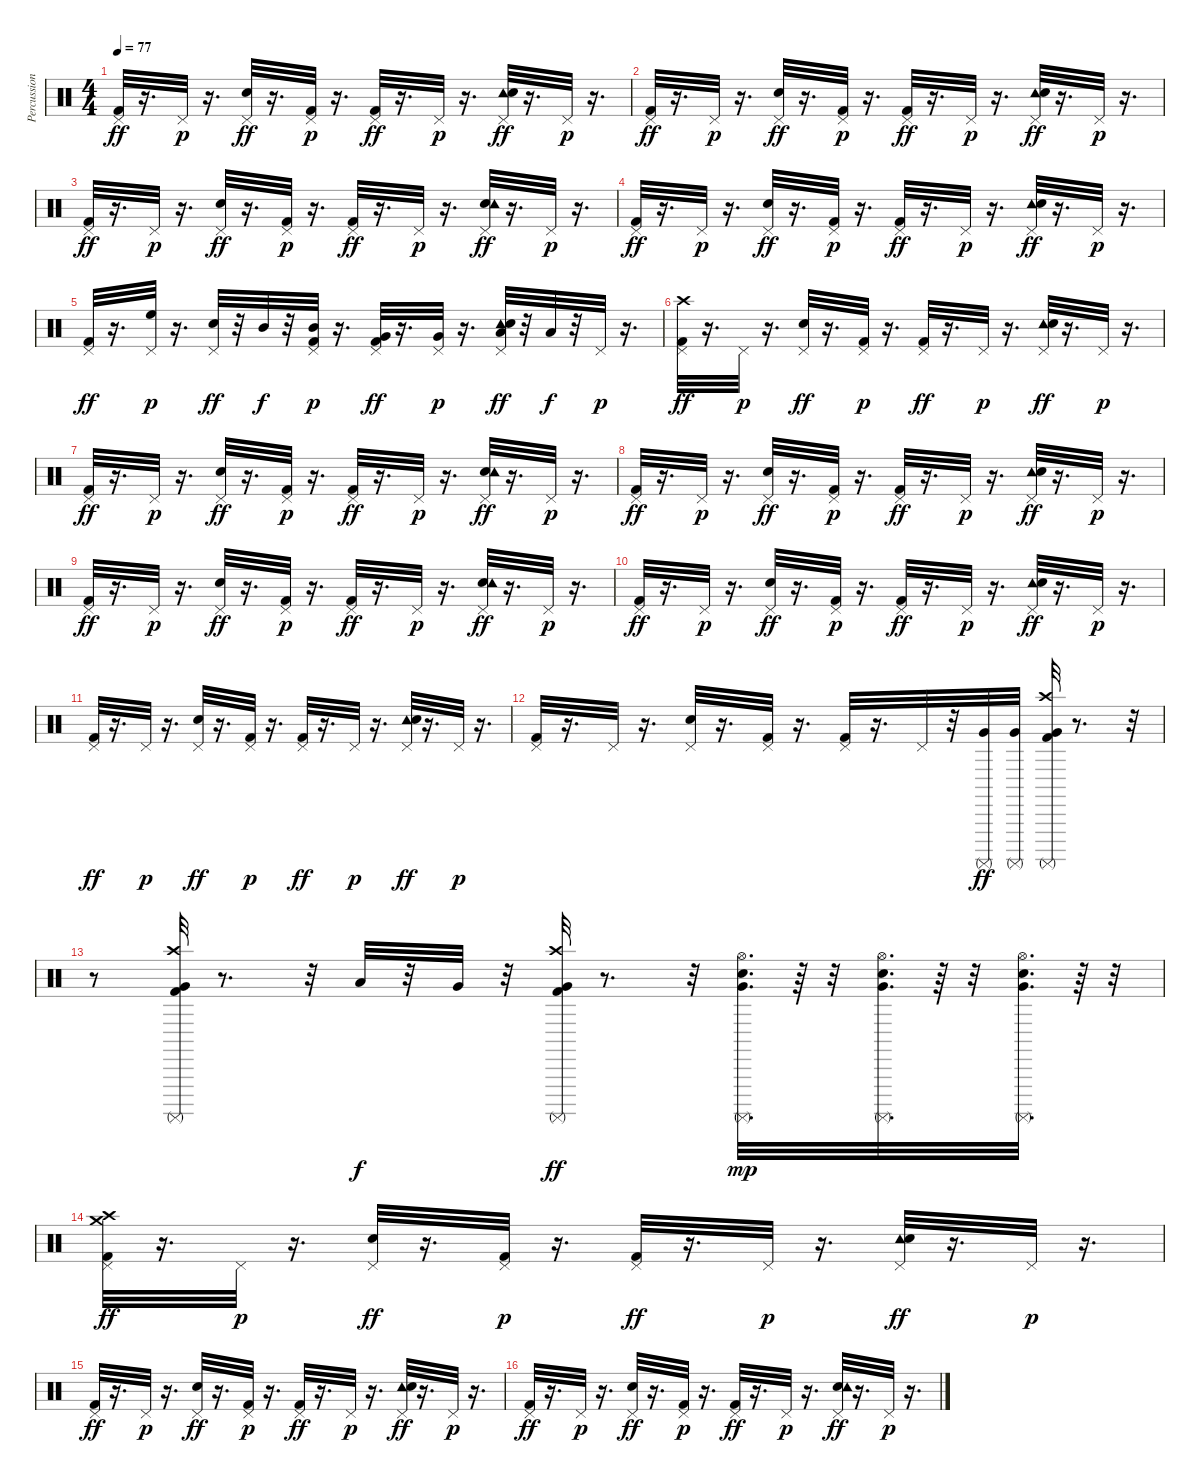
\track ("Percussion" "Percussion") {instrument percussion}
\staff {score}
\articulation defaults
\ts (4 4)
\tempo 77
\clef neutral
\ks c
("Kick (hit) 2" "Pedal Hi-Hat (hit)").32{dy ff} r.16{d} "Pedal Hi-Hat (hit)".32{dy p} r.16{d} ("Electric Snare (hit)" "Pedal Hi-Hat (hit)").32{dy ff} r.16{d} ("Kick (hit) 2" "Pedal Hi-Hat (hit)").32{dy p} r.16{d} ("Kick (hit) 2" "Pedal Hi-Hat (hit)").32{dy ff} r.16{d} "Pedal Hi-Hat (hit)".32{dy p} r.16{d} ("Tambourine (hit)" "Electric Snare (hit)" "Pedal Hi-Hat (hit)").32{dy ff} r.16{d} "Pedal Hi-Hat (hit)".32{dy p} r.16{d} |
("Kick (hit) 2" "Pedal Hi-Hat (hit)").32{dy ff} r.16{d} "Pedal Hi-Hat (hit)".32{dy p} r.16{d} ("Electric Snare (hit)" "Pedal Hi-Hat (hit)").32{dy ff} r.16{d} ("Kick (hit) 2" "Pedal Hi-Hat (hit)").32{dy p} r.16{d} ("Kick (hit) 2" "Pedal Hi-Hat (hit)").32{dy ff} r.16{d} "Pedal Hi-Hat (hit)".32{dy p} r.16{d} ("Tambourine (hit)" "Electric Snare (hit)" "Pedal Hi-Hat (hit)").32{dy ff} r.16{d} "Pedal Hi-Hat (hit)".32{dy p} r.16{d} |
("Kick (hit) 2" "Pedal Hi-Hat (hit)").32{dy ff} r.16{d} "Pedal Hi-Hat (hit)".32{dy p} r.16{d} ("Electric Snare (hit)" "Pedal Hi-Hat (hit)").32{dy ff} r.16{d} ("Kick (hit) 2" "Pedal Hi-Hat (hit)").32{dy p} r.16{d} ("Kick (hit) 2" "Pedal Hi-Hat (hit)").32{dy ff} r.16{d} "Pedal Hi-Hat (hit)".32{dy p} r.16{d} ("Electric Snare (hit)" "Tambourine (hit)" "Pedal Hi-Hat (hit)").32{dy ff} r.16{d} "Pedal Hi-Hat (hit)".32{dy p} r.16{d} |
("Kick (hit) 2" "Pedal Hi-Hat (hit)").32{dy ff} r.16{d} "Pedal Hi-Hat (hit)".32{dy p} r.16{d} ("Electric Snare (hit)" "Pedal Hi-Hat (hit)").32{dy ff} r.16{d} ("Kick (hit) 2" "Pedal Hi-Hat (hit)").32{dy p} r.16{d} ("Kick (hit) 2" "Pedal Hi-Hat (hit)").32{dy ff} r.16{d} "Pedal Hi-Hat (hit)".32{dy p} r.16{d} ("Tambourine (hit)" "Electric Snare (hit)" "Pedal Hi-Hat (hit)").32{dy ff} r.16{d} "Pedal Hi-Hat (hit)".32{dy p} r.16{d} |
("Kick (hit) 2" "Pedal Hi-Hat (hit)").32{dy ff} r.16{d} ("High Floor Tom (hit)" "Pedal Hi-Hat (hit)").32{dy p} r.16{d} ("Electric Snare (hit)" "Pedal Hi-Hat (hit)").32{dy ff} r.32 "Mid Tom (hit)".32{dy f} r.32 ("Mid Tom (hit)" "Kick (hit) 2" "Pedal Hi-Hat (hit)").32{dy p} r.16{d} ("Kick (hit) 2" "Very Low Tom (hit)" "Pedal Hi-Hat (hit)").32{dy ff} r.16{d} ("Very Low Tom (hit)" "Pedal Hi-Hat (hit)").32{dy p} r.16{d} ("Low Floor Tom (hit)" "Tambourine (hit)" "Electric Snare (hit)" "Pedal Hi-Hat (hit)").32{dy ff} r.32 "Low Floor Tom (hit)".32{dy f} r.32 "Pedal Hi-Hat (hit)".32{dy p} r.16{d} |
("Crash high (hit)" "Kick (hit) 2" "Pedal Hi-Hat (hit)").32{dy ff} r.16{d} "Pedal Hi-Hat (hit)".32{dy p} r.16{d} ("Electric Snare (hit)" "Pedal Hi-Hat (hit)").32{dy ff} r.16{d} ("Kick (hit) 2" "Pedal Hi-Hat (hit)").32{dy p} r.16{d} ("Kick (hit) 2" "Pedal Hi-Hat (hit)").32{dy ff} r.16{d} "Pedal Hi-Hat (hit)".32{dy p} r.16{d} ("Tambourine (hit)" "Electric Snare (hit)" "Pedal Hi-Hat (hit)").32{dy ff} r.16{d} "Pedal Hi-Hat (hit)".32{dy p} r.16{d} |
("Kick (hit) 2" "Pedal Hi-Hat (hit)").32{dy ff} r.16{d} "Pedal Hi-Hat (hit)".32{dy p} r.16{d} ("Electric Snare (hit)" "Pedal Hi-Hat (hit)").32{dy ff} r.16{d} ("Kick (hit) 2" "Pedal Hi-Hat (hit)").32{dy p} r.16{d} ("Kick (hit) 2" "Pedal Hi-Hat (hit)").32{dy ff} r.16{d} "Pedal Hi-Hat (hit)".32{dy p} r.16{d} ("Electric Snare (hit)" "Tambourine (hit)" "Pedal Hi-Hat (hit)").32{dy ff} r.16{d} "Pedal Hi-Hat (hit)".32{dy p} r.16{d} |
("Kick (hit) 2" "Pedal Hi-Hat (hit)").32{dy ff} r.16{d} "Pedal Hi-Hat (hit)".32{dy p} r.16{d} ("Electric Snare (hit)" "Pedal Hi-Hat (hit)").32{dy ff} r.16{d} ("Kick (hit) 2" "Pedal Hi-Hat (hit)").32{dy p} r.16{d} ("Kick (hit) 2" "Pedal Hi-Hat (hit)").32{dy ff} r.16{d} "Pedal Hi-Hat (hit)".32{dy p} r.16{d} ("Tambourine (hit)" "Electric Snare (hit)" "Pedal Hi-Hat (hit)").32{dy ff} r.16{d} "Pedal Hi-Hat (hit)".32{dy p} r.16{d} |
("Kick (hit) 2" "Pedal Hi-Hat (hit)").32{dy ff} r.16{d} "Pedal Hi-Hat (hit)".32{dy p} r.16{d} ("Electric Snare (hit)" "Pedal Hi-Hat (hit)").32{dy ff} r.16{d} ("Kick (hit) 2" "Pedal Hi-Hat (hit)").32{dy p} r.16{d} ("Kick (hit) 2" "Pedal Hi-Hat (hit)").32{dy ff} r.16{d} "Pedal Hi-Hat (hit)".32{dy p} r.16{d} ("Electric Snare (hit)" "Tambourine (hit)" "Pedal Hi-Hat (hit)").32{dy ff} r.16{d} "Pedal Hi-Hat (hit)".32{dy p} r.16{d} |
("Kick (hit) 2" "Pedal Hi-Hat (hit)").32{dy ff} r.16{d} "Pedal Hi-Hat (hit)".32{dy p} r.16{d} ("Electric Snare (hit)" "Pedal Hi-Hat (hit)").32{dy ff} r.16{d} ("Kick (hit) 2" "Pedal Hi-Hat (hit)").32{dy p} r.16{d} ("Kick (hit) 2" "Pedal Hi-Hat (hit)").32{dy ff} r.16{d} "Pedal Hi-Hat (hit)".32{dy p} r.16{d} ("Tambourine (hit)" "Electric Snare (hit)" "Pedal Hi-Hat (hit)").32{dy ff} r.16{d} "Pedal Hi-Hat (hit)".32{dy p} r.16{d} |
("Kick (hit) 2" "Pedal Hi-Hat (hit)").32{dy ff} r.16{d} "Pedal Hi-Hat (hit)".32{dy p} r.16{d} ("Electric Snare (hit)" "Pedal Hi-Hat (hit)").32{dy ff} r.16{d} ("Kick (hit) 2" "Pedal Hi-Hat (hit)").32{dy p} r.16{d} ("Kick (hit) 2" "Pedal Hi-Hat (hit)").32{dy ff} r.16{d} "Pedal Hi-Hat (hit)".32{dy p} r.16{d} ("Tambourine (hit)" "Electric Snare (hit)" "Pedal Hi-Hat (hit)").32{dy ff} r.16{d} "Pedal Hi-Hat (hit)".32{dy p} r.16{d} |
("Kick (hit) 2" "Pedal Hi-Hat (hit)").32 r.16{d} "Pedal Hi-Hat (hit)".32 r.16{d} ("Electric Snare (hit)" "Pedal Hi-Hat (hit)").32 r.16{d} ("Kick (hit) 2" "Pedal Hi-Hat (hit)").32 r.16{d} ("Kick (hit) 2" "Pedal Hi-Hat (hit)").32 r.16{d} "Pedal Hi-Hat (hit)".32 r.32 ("Very Low Tom (hit)" "Surdo (mute)").32{dy ff} ("Very Low Tom (hit)" "Surdo (mute)").32 ("Crash high (hit)" "Kick (hit) 2" "Very Low Tom (hit)" "Surdo (mute)").32 r.8{d} r.32 |
r.8 ("Crash high (hit)" "Very Low Tom (hit)" "Kick (hit) 2" "Surdo (mute)").32 r.8{d} r.32 "Low Tom (hit)".32{dy f} r.32 "Very Low Tom (hit)".32 r.32 ("Crash high (hit)" "Kick (hit) 2" "Very Low Tom (hit)" "Surdo (mute)").32{dy ff} r.8{d} r.32 ("Hi-Hat (open)" "Very Low Tom (hit)" "Electric Snare (hit)" "Surdo (mute)").32{d dy mp} r.64 r.32 ("Electric Snare (hit)" "Very Low Tom (hit)" "Hi-Hat (open)" "Surdo (mute)").32{d} r.64 r.32 ("Electric Snare (hit)" "Very Low Tom (hit)" "Hi-Hat (open)" "Surdo (mute)").32{d} r.64 r.32 |
("Crash high (hit)" "Kick (hit) 2" "Pedal Hi-Hat (hit)" "Crash medium (hit)").32{dy ff} r.16{d} "Pedal Hi-Hat (hit)".32{dy p} r.16{d} ("Electric Snare (hit)" "Pedal Hi-Hat (hit)").32{dy ff} r.16{d} ("Kick (hit) 2" "Pedal Hi-Hat (hit)").32{dy p} r.16{d} ("Kick (hit) 2" "Pedal Hi-Hat (hit)").32{dy ff} r.16{d} "Pedal Hi-Hat (hit)".32{dy p} r.16{d} ("Tambourine (hit)" "Electric Snare (hit)" "Pedal Hi-Hat (hit)").32{dy ff} r.16{d} "Pedal Hi-Hat (hit)".32{dy p} r.16{d} |
("Kick (hit) 2" "Pedal Hi-Hat (hit)").32{dy ff} r.16{d} "Pedal Hi-Hat (hit)".32{dy p} r.16{d} ("Electric Snare (hit)" "Pedal Hi-Hat (hit)").32{dy ff} r.16{d} ("Kick (hit) 2" "Pedal Hi-Hat (hit)").32{dy p} r.16{d} ("Kick (hit) 2" "Pedal Hi-Hat (hit)").32{dy ff} r.16{d} "Pedal Hi-Hat (hit)".32{dy p} r.16{d} ("Tambourine (hit)" "Electric Snare (hit)" "Pedal Hi-Hat (hit)").32{dy ff} r.16{d} "Pedal Hi-Hat (hit)".32{dy p} r.16{d} |
("Kick (hit) 2" "Pedal Hi-Hat (hit)").32{dy ff} r.16{d} "Pedal Hi-Hat (hit)".32{dy p} r.16{d} ("Electric Snare (hit)" "Pedal Hi-Hat (hit)").32{dy ff} r.16{d} ("Kick (hit) 2" "Pedal Hi-Hat (hit)").32{dy p} r.16{d} ("Kick (hit) 2" "Pedal Hi-Hat (hit)").32{dy ff} r.16{d} "Pedal Hi-Hat (hit)".32{dy p} r.16{d} ("Electric Snare (hit)" "Tambourine (hit)" "Pedal Hi-Hat (hit)").32{dy ff} r.16{d} "Pedal Hi-Hat (hit)".32{dy p} r.16{d}
